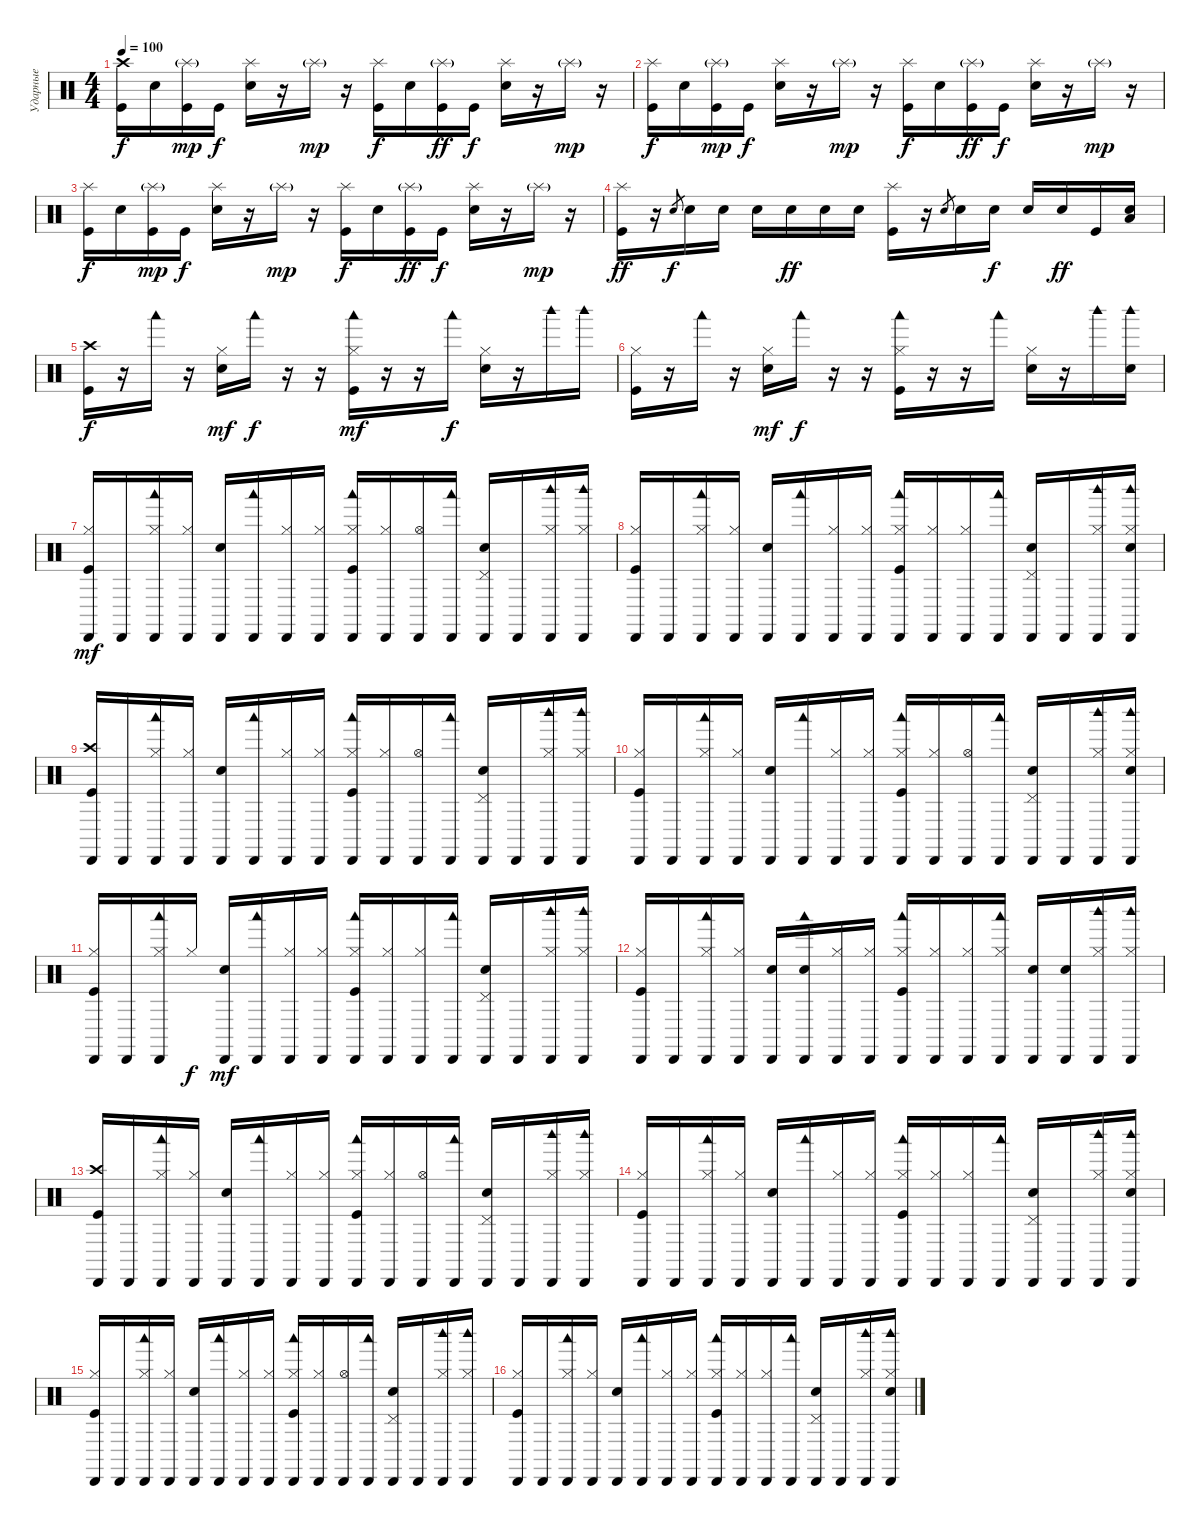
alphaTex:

\track ("Ударные" "Ударные") {instrument percussion}
\staff {score}
\articulation defaults
\ts (4 4)
\tempo 100
\clef neutral
\ks c
("Crash high (hit)" "Kick (hit)").16{dy f} "Snare (hit) 2".16 ("Splash (hit)"{g} "Kick (hit)").16{dy mp} "Kick (hit)".16{dy f} ("Splash (hit)" "Snare (hit) 2").16 r.16 "Splash (hit)"{g}.16{dy mp} r.16 ("Splash (hit)" "Kick (hit)").16{dy f} "Snare (hit) 2".16 ("Splash (hit)"{g} "Kick (hit)").16{dy ff} "Kick (hit)".16{dy f} ("Splash (hit)" "Snare (hit) 2").16 r.16 "Splash (hit)"{g}.16{dy mp} r.16 |
("Splash (hit)" "Kick (hit)").16{dy f} "Snare (hit) 2".16 ("Splash (hit)"{g} "Kick (hit)").16{dy mp} "Kick (hit)".16{dy f} ("Splash (hit)" "Snare (hit) 2").16 r.16 "Splash (hit)"{g}.16{dy mp} r.16 ("Splash (hit)" "Kick (hit)").16{dy f} "Snare (hit) 2".16 ("Splash (hit)"{g} "Kick (hit)").16{dy ff} "Kick (hit)".16{dy f} ("Splash (hit)" "Snare (hit) 2").16 r.16 "Splash (hit)"{g}.16{dy mp} r.16 |
("Splash (hit)" "Kick (hit)").16{dy f} "Snare (hit) 2".16 ("Splash (hit)"{g} "Kick (hit)").16{dy mp} "Kick (hit)".16{dy f} ("Splash (hit)" "Snare (hit) 2").16 r.16 "Splash (hit)"{g}.16{dy mp} r.16 ("Splash (hit)" "Kick (hit)").16{dy f} "Snare (hit) 2".16 ("Splash (hit)"{g} "Kick (hit)").16{dy ff} "Kick (hit)".16{dy f} ("Splash (hit)" "Snare (hit) 2").16 r.16 "Splash (hit)"{g}.16{dy mp} r.16 |
("Splash (hit)" "Kick (hit)").16{dy ff} r.16 "Snare (hit) 2".8{gr dy f} "Snare (hit) 2".16 "Snare (hit) 2".16 "Snare (hit) 2".16 "Snare (hit) 2".16{dy ff} "Snare (hit) 2".16 "Snare (hit) 2".16 ("Splash (hit)" "Kick (hit)").16 r.16 "Snare (hit) 2".8{gr} "Snare (hit) 2".16 "Snare (hit) 2".16{dy f} "Snare (hit) 2".16 "Snare (hit) 2".16{dy ff} "Kick (hit)".16 ("Low Floor Tom (hit)" "Snare (hit) 2").16 |
("Kick (hit)" "Crash high (hit)").16{dy f} r.16 "Woodblock low (hit)".16 r.16 ("Snare (hit) 2" "Hi-Hat (closed)").16{dy mf} "Woodblock low (hit)".16{dy f} r.16 r.16 ("Kick (hit)" "Hi-Hat (closed)" "Woodblock low (hit)").16{dy mf} r.16 r.16 "Woodblock low (hit)".16{dy f} ("Snare (hit) 2" "Hi-Hat (closed)").16 r.16 "Woodblock high (hit)".16 "Woodblock high (hit)".16 |
("Kick (hit)" "Hi-Hat (closed)").16 r.16 "Woodblock low (hit)".16 r.16 ("Snare (hit) 2" "Hi-Hat (closed)").16{dy mf} "Woodblock low (hit)".16{dy f} r.16 r.16 ("Kick (hit)" "Hi-Hat (closed)" "Woodblock low (hit)").16 r.16 r.16 "Woodblock low (hit)".16 ("Snare (hit) 2" "Hi-Hat (closed)").16 r.16 "Woodblock high (hit)".16 ("Snare (hit) 2" "Woodblock high (hit)").16 |
("Kick (hit)" "Hi-Hat (closed)" "Cabasa (hit)").16{dy mf} "Cabasa (hit)".16 ("Hi-Hat (closed)" "Woodblock low (hit)" "Cabasa (hit)").16 ("Hi-Hat (closed)" "Cabasa (hit)").16 ("Snare (hit) 2" "Cabasa (hit)").16 ("Woodblock low (hit)" "Cabasa (hit)").16 ("Hi-Hat (closed)" "Cabasa (hit)").16 ("Hi-Hat (closed)" "Cabasa (hit)").16 ("Kick (hit)" "Hi-Hat (closed)" "Woodblock low (hit)" "Cabasa (hit)").16 ("Hi-Hat (closed)" "Cabasa (hit)").16 ("Hi-Hat (open)" "Cabasa (hit)").16 ("Woodblock low (hit)" "Cabasa (hit)").16 ("Snare (hit) 2" "Pedal Hi-Hat (hit)" "Cabasa (hit)").16 "Cabasa (hit)".16 ("Hi-Hat (closed)" "Woodblock high (hit)" "Cabasa (hit)").16 ("Hi-Hat (closed)" "Woodblock high (hit)" "Cabasa (hit)").16 |
("Kick (hit)" "Hi-Hat (closed)" "Cabasa (hit)").16 "Cabasa (hit)".16 ("Hi-Hat (closed)" "Woodblock low (hit)" "Cabasa (hit)").16 ("Hi-Hat (closed)" "Cabasa (hit)").16 ("Snare (hit) 2" "Cabasa (hit)").16 ("Woodblock low (hit)" "Cabasa (hit)").16 ("Hi-Hat (closed)" "Cabasa (hit)").16 ("Hi-Hat (closed)" "Cabasa (hit)").16 ("Kick (hit)" "Hi-Hat (closed)" "Woodblock low (hit)" "Cabasa (hit)").16 ("Hi-Hat (closed)" "Cabasa (hit)").16 ("Hi-Hat (closed)" "Cabasa (hit)").16 ("Woodblock low (hit)" "Cabasa (hit)").16 ("Snare (hit) 2" "Pedal Hi-Hat (hit)" "Cabasa (hit)").16 "Cabasa (hit)".16 ("Hi-Hat (closed)" "Woodblock high (hit)" "Cabasa (hit)").16 ("Snare (hit) 2" "Hi-Hat (closed)" "Woodblock high (hit)" "Cabasa (hit)").16 |
("Kick (hit)" "Crash high (hit)" "Cabasa (hit)").16 "Cabasa (hit)".16 ("Hi-Hat (closed)" "Woodblock low (hit)" "Cabasa (hit)").16 ("Hi-Hat (closed)" "Cabasa (hit)").16 ("Snare (hit) 2" "Cabasa (hit)").16 ("Woodblock low (hit)" "Cabasa (hit)").16 ("Hi-Hat (closed)" "Cabasa (hit)").16 ("Hi-Hat (closed)" "Cabasa (hit)").16 ("Kick (hit)" "Hi-Hat (closed)" "Woodblock low (hit)" "Cabasa (hit)").16 ("Hi-Hat (closed)" "Cabasa (hit)").16 ("Hi-Hat (open)" "Cabasa (hit)").16 ("Woodblock low (hit)" "Cabasa (hit)").16 ("Snare (hit) 2" "Pedal Hi-Hat (hit)" "Cabasa (hit)").16 "Cabasa (hit)".16 ("Hi-Hat (closed)" "Woodblock high (hit)" "Cabasa (hit)").16 ("Hi-Hat (closed)" "Woodblock high (hit)" "Cabasa (hit)").16 |
("Kick (hit)" "Hi-Hat (closed)" "Cabasa (hit)").16 "Cabasa (hit)".16 ("Hi-Hat (closed)" "Woodblock low (hit)" "Cabasa (hit)").16 ("Hi-Hat (closed)" "Cabasa (hit)").16 ("Snare (hit) 2" "Cabasa (hit)").16 ("Woodblock low (hit)" "Cabasa (hit)").16 ("Hi-Hat (closed)" "Cabasa (hit)").16 ("Hi-Hat (closed)" "Cabasa (hit)").16 ("Kick (hit)" "Hi-Hat (closed)" "Woodblock low (hit)" "Cabasa (hit)").16 ("Hi-Hat (closed)" "Cabasa (hit)").16 ("Hi-Hat (open)" "Cabasa (hit)").16 ("Woodblock low (hit)" "Cabasa (hit)").16 ("Snare (hit) 2" "Pedal Hi-Hat (hit)" "Cabasa (hit)").16 "Cabasa (hit)".16 ("Hi-Hat (closed)" "Woodblock high (hit)" "Cabasa (hit)").16 ("Snare (hit) 2" "Hi-Hat (closed)" "Woodblock high (hit)" "Cabasa (hit)").16 |
("Kick (hit)" "Hi-Hat (closed)" "Cabasa (hit)").16 "Cabasa (hit)".16 ("Hi-Hat (closed)" "Woodblock low (hit)" "Cabasa (hit)").16 "Hi-Hat (closed)".16{dy f} ("Snare (hit) 2" "Cabasa (hit)").16{dy mf} ("Woodblock low (hit)" "Cabasa (hit)").16 ("Hi-Hat (closed)" "Cabasa (hit)").16 ("Hi-Hat (closed)" "Cabasa (hit)").16 ("Kick (hit)" "Hi-Hat (closed)" "Woodblock low (hit)" "Cabasa (hit)").16 ("Hi-Hat (closed)" "Cabasa (hit)").16 ("Hi-Hat (closed)" "Cabasa (hit)").16 ("Woodblock low (hit)" "Cabasa (hit)").16 ("Snare (hit) 2" "Pedal Hi-Hat (hit)" "Cabasa (hit)").16 "Cabasa (hit)".16 ("Hi-Hat (closed)" "Woodblock high (hit)" "Cabasa (hit)").16 ("Hi-Hat (closed)" "Woodblock high (hit)" "Cabasa (hit)").16 |
("Kick (hit)" "Hi-Hat (closed)" "Cabasa (hit)").16 "Cabasa (hit)".16 ("Hi-Hat (closed)" "Woodblock low (hit)" "Cabasa (hit)").16 ("Hi-Hat (closed)" "Cabasa (hit)").16 ("Snare (hit) 2" "Cabasa (hit)").16 ("Snare (hit) 2" "Woodblock low (hit)" "Cabasa (hit)").16 ("Hi-Hat (closed)" "Cabasa (hit)").16 ("Hi-Hat (closed)" "Cabasa (hit)").16 ("Kick (hit)" "Hi-Hat (closed)" "Woodblock low (hit)" "Cabasa (hit)").16 ("Hi-Hat (closed)" "Cabasa (hit)").16 ("Hi-Hat (closed)" "Cabasa (hit)").16 ("Hi-Hat (closed)" "Woodblock low (hit)" "Cabasa (hit)").16 ("Snare (hit) 2" "Cabasa (hit)").16 ("Snare (hit) 2" "Cabasa (hit)").16 ("Hi-Hat (closed)" "Woodblock high (hit)" "Cabasa (hit)").16 ("Hi-Hat (closed)" "Woodblock high (hit)" "Cabasa (hit)").16 |
("Kick (hit)" "Crash high (hit)" "Cabasa (hit)").16 "Cabasa (hit)".16 ("Hi-Hat (closed)" "Woodblock low (hit)" "Cabasa (hit)").16 ("Hi-Hat (closed)" "Cabasa (hit)").16 ("Snare (hit) 2" "Cabasa (hit)").16 ("Woodblock low (hit)" "Cabasa (hit)").16 ("Hi-Hat (closed)" "Cabasa (hit)").16 ("Hi-Hat (closed)" "Cabasa (hit)").16 ("Kick (hit)" "Hi-Hat (closed)" "Woodblock low (hit)" "Cabasa (hit)").16 ("Hi-Hat (closed)" "Cabasa (hit)").16 ("Hi-Hat (open)" "Cabasa (hit)").16 ("Woodblock low (hit)" "Cabasa (hit)").16 ("Snare (hit) 2" "Pedal Hi-Hat (hit)" "Cabasa (hit)").16 "Cabasa (hit)".16 ("Hi-Hat (closed)" "Woodblock high (hit)" "Cabasa (hit)").16 ("Hi-Hat (closed)" "Woodblock high (hit)" "Cabasa (hit)").16 |
("Kick (hit)" "Hi-Hat (closed)" "Cabasa (hit)").16 "Cabasa (hit)".16 ("Hi-Hat (closed)" "Woodblock low (hit)" "Cabasa (hit)").16 ("Hi-Hat (closed)" "Cabasa (hit)").16 ("Snare (hit) 2" "Cabasa (hit)").16 ("Woodblock low (hit)" "Cabasa (hit)").16 ("Hi-Hat (closed)" "Cabasa (hit)").16 ("Hi-Hat (closed)" "Cabasa (hit)").16 ("Kick (hit)" "Hi-Hat (closed)" "Woodblock low (hit)" "Cabasa (hit)").16 ("Hi-Hat (closed)" "Cabasa (hit)").16 ("Hi-Hat (closed)" "Cabasa (hit)").16 ("Woodblock low (hit)" "Cabasa (hit)").16 ("Snare (hit) 2" "Pedal Hi-Hat (hit)" "Cabasa (hit)").16 "Cabasa (hit)".16 ("Hi-Hat (closed)" "Woodblock high (hit)" "Cabasa (hit)").16 ("Snare (hit) 2" "Hi-Hat (closed)" "Woodblock high (hit)" "Cabasa (hit)").16 |
("Kick (hit)" "Hi-Hat (closed)" "Cabasa (hit)").16 "Cabasa (hit)".16 ("Hi-Hat (closed)" "Woodblock low (hit)" "Cabasa (hit)").16 ("Hi-Hat (closed)" "Cabasa (hit)").16 ("Snare (hit) 2" "Cabasa (hit)").16 ("Woodblock low (hit)" "Cabasa (hit)").16 ("Hi-Hat (closed)" "Cabasa (hit)").16 ("Hi-Hat (closed)" "Cabasa (hit)").16 ("Kick (hit)" "Hi-Hat (closed)" "Woodblock low (hit)" "Cabasa (hit)").16 ("Hi-Hat (closed)" "Cabasa (hit)").16 ("Hi-Hat (open)" "Cabasa (hit)").16 ("Woodblock low (hit)" "Cabasa (hit)").16 ("Snare (hit) 2" "Pedal Hi-Hat (hit)" "Cabasa (hit)").16 "Cabasa (hit)".16 ("Hi-Hat (closed)" "Woodblock high (hit)" "Cabasa (hit)").16 ("Hi-Hat (closed)" "Woodblock high (hit)" "Cabasa (hit)").16 |
("Kick (hit)" "Hi-Hat (closed)" "Cabasa (hit)").16 "Cabasa (hit)".16 ("Hi-Hat (closed)" "Woodblock low (hit)" "Cabasa (hit)").16 ("Hi-Hat (closed)" "Cabasa (hit)").16 ("Snare (hit) 2" "Cabasa (hit)").16 ("Woodblock low (hit)" "Cabasa (hit)").16 ("Hi-Hat (closed)" "Cabasa (hit)").16 ("Hi-Hat (closed)" "Cabasa (hit)").16 ("Kick (hit)" "Hi-Hat (closed)" "Woodblock low (hit)" "Cabasa (hit)").16 ("Hi-Hat (closed)" "Cabasa (hit)").16 ("Hi-Hat (closed)" "Cabasa (hit)").16 ("Woodblock low (hit)" "Cabasa (hit)").16 ("Snare (hit) 2" "Pedal Hi-Hat (hit)" "Cabasa (hit)").16 "Cabasa (hit)".16 ("Hi-Hat (closed)" "Woodblock high (hit)" "Cabasa (hit)").16 ("Snare (hit) 2" "Hi-Hat (closed)" "Woodblock high (hit)" "Cabasa (hit)").16
